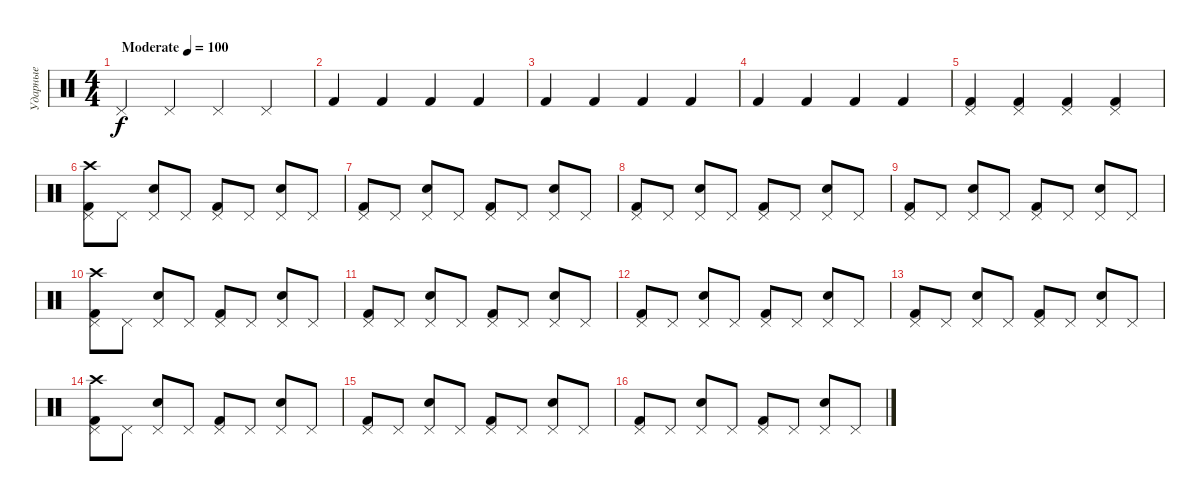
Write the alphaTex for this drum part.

\track ("Ударные" "Ударные") {instrument percussion}
\staff {score}
\articulation defaults
\ts (4 4)
\tempo (100 "Moderate")
\clef neutral
\ks c "Pedal Hi-Hat (hit)".4{dy f} "Pedal Hi-Hat (hit)".4 "Pedal Hi-Hat (hit)".4 "Pedal Hi-Hat (hit)".4
|
"Kick (hit) 2".4 "Kick (hit) 2".4 "Kick (hit) 2".4 "Kick (hit) 2".4 |
"Kick (hit) 2".4 "Kick (hit) 2".4 "Kick (hit) 2".4 "Kick (hit) 2".4 |
"Kick (hit) 2".4 "Kick (hit) 2".4 "Kick (hit) 2".4 "Kick (hit) 2".4 |
("Kick (hit) 2" "Pedal Hi-Hat (hit)").4 ("Kick (hit) 2" "Pedal Hi-Hat (hit)").4 ("Kick (hit) 2" "Pedal Hi-Hat (hit)").4 ("Kick (hit) 2" "Pedal Hi-Hat (hit)").4 |
("Pedal Hi-Hat (hit)" "Crash high (hit)" "Kick (hit) 2").8 "Pedal Hi-Hat (hit)".8 ("Snare (hit) 2" "Pedal Hi-Hat (hit)").8 "Pedal Hi-Hat (hit)".8 ("Kick (hit) 2" "Pedal Hi-Hat (hit)").8 "Pedal Hi-Hat (hit)".8 ("Snare (hit) 2" "Pedal Hi-Hat (hit)").8 "Pedal Hi-Hat (hit)".8 |
("Pedal Hi-Hat (hit)" "Kick (hit) 2").8 "Pedal Hi-Hat (hit)".8 ("Snare (hit) 2" "Pedal Hi-Hat (hit)").8 "Pedal Hi-Hat (hit)".8 ("Kick (hit) 2" "Pedal Hi-Hat (hit)").8 "Pedal Hi-Hat (hit)".8 ("Snare (hit) 2" "Pedal Hi-Hat (hit)").8 "Pedal Hi-Hat (hit)".8 |
("Pedal Hi-Hat (hit)" "Kick (hit) 2").8 "Pedal Hi-Hat (hit)".8 ("Snare (hit) 2" "Pedal Hi-Hat (hit)").8 "Pedal Hi-Hat (hit)".8 ("Kick (hit) 2" "Pedal Hi-Hat (hit)").8 "Pedal Hi-Hat (hit)".8 ("Snare (hit) 2" "Pedal Hi-Hat (hit)").8 "Pedal Hi-Hat (hit)".8 |
("Pedal Hi-Hat (hit)" "Kick (hit) 2").8 "Pedal Hi-Hat (hit)".8 ("Snare (hit) 2" "Pedal Hi-Hat (hit)").8 "Pedal Hi-Hat (hit)".8 ("Kick (hit) 2" "Pedal Hi-Hat (hit)").8 "Pedal Hi-Hat (hit)".8 ("Snare (hit) 2" "Pedal Hi-Hat (hit)").8 "Pedal Hi-Hat (hit)".8 |
("Pedal Hi-Hat (hit)" "Crash high (hit)" "Kick (hit) 2").8 "Pedal Hi-Hat (hit)".8 ("Snare (hit) 2" "Pedal Hi-Hat (hit)").8 "Pedal Hi-Hat (hit)".8 ("Kick (hit) 2" "Pedal Hi-Hat (hit)").8 "Pedal Hi-Hat (hit)".8 ("Snare (hit) 2" "Pedal Hi-Hat (hit)").8 "Pedal Hi-Hat (hit)".8 |
("Pedal Hi-Hat (hit)" "Kick (hit) 2").8 "Pedal Hi-Hat (hit)".8 ("Snare (hit) 2" "Pedal Hi-Hat (hit)").8 "Pedal Hi-Hat (hit)".8 ("Kick (hit) 2" "Pedal Hi-Hat (hit)").8 "Pedal Hi-Hat (hit)".8 ("Snare (hit) 2" "Pedal Hi-Hat (hit)").8 "Pedal Hi-Hat (hit)".8 |
("Pedal Hi-Hat (hit)" "Kick (hit) 2").8 "Pedal Hi-Hat (hit)".8 ("Snare (hit) 2" "Pedal Hi-Hat (hit)").8 "Pedal Hi-Hat (hit)".8 ("Kick (hit) 2" "Pedal Hi-Hat (hit)").8 "Pedal Hi-Hat (hit)".8 ("Snare (hit) 2" "Pedal Hi-Hat (hit)").8 "Pedal Hi-Hat (hit)".8 |
("Pedal Hi-Hat (hit)" "Kick (hit) 2").8 "Pedal Hi-Hat (hit)".8 ("Snare (hit) 2" "Pedal Hi-Hat (hit)").8 "Pedal Hi-Hat (hit)".8 ("Kick (hit) 2" "Pedal Hi-Hat (hit)").8 "Pedal Hi-Hat (hit)".8 ("Snare (hit) 2" "Pedal Hi-Hat (hit)").8 "Pedal Hi-Hat (hit)".8 |
("Pedal Hi-Hat (hit)" "Crash high (hit)" "Kick (hit) 2").8 "Pedal Hi-Hat (hit)".8 ("Snare (hit) 2" "Pedal Hi-Hat (hit)").8 "Pedal Hi-Hat (hit)".8 ("Kick (hit) 2" "Pedal Hi-Hat (hit)").8 "Pedal Hi-Hat (hit)".8 ("Snare (hit) 2" "Pedal Hi-Hat (hit)").8 "Pedal Hi-Hat (hit)".8 |
("Pedal Hi-Hat (hit)" "Kick (hit) 2").8 "Pedal Hi-Hat (hit)".8 ("Snare (hit) 2" "Pedal Hi-Hat (hit)").8 "Pedal Hi-Hat (hit)".8 ("Kick (hit) 2" "Pedal Hi-Hat (hit)").8 "Pedal Hi-Hat (hit)".8 ("Snare (hit) 2" "Pedal Hi-Hat (hit)").8 "Pedal Hi-Hat (hit)".8 |
("Pedal Hi-Hat (hit)" "Kick (hit) 2").8 "Pedal Hi-Hat (hit)".8 ("Snare (hit) 2" "Pedal Hi-Hat (hit)").8 "Pedal Hi-Hat (hit)".8 ("Kick (hit) 2" "Pedal Hi-Hat (hit)").8 "Pedal Hi-Hat (hit)".8 ("Snare (hit) 2" "Pedal Hi-Hat (hit)").8 "Pedal Hi-Hat (hit)".8
